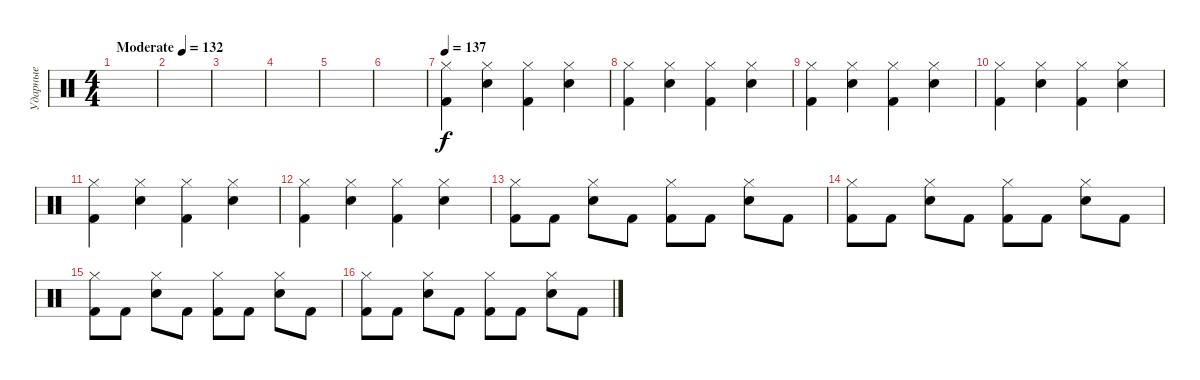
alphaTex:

\track ("Ударные" "Ударные") {instrument percussion}
\staff {score}
\articulation defaults
\ts (4 4)
\tempo (132 "Moderate")
\clef neutral
\ks c
|
|
|
|
|
|
\tempo 137
("Kick (hit) 2" "Hi-Hat (closed)").4 ("Electric Snare (hit)" "Hi-Hat (closed)").4 ("Kick (hit) 2" "Hi-Hat (closed)").4 ("Electric Snare (hit)" "Hi-Hat (closed)").4 |
("Kick (hit) 2" "Hi-Hat (closed)").4 ("Electric Snare (hit)" "Hi-Hat (closed)").4 ("Kick (hit) 2" "Hi-Hat (closed)").4 ("Electric Snare (hit)" "Hi-Hat (closed)").4 |
("Kick (hit) 2" "Hi-Hat (closed)").4 ("Electric Snare (hit)" "Hi-Hat (closed)").4 ("Kick (hit) 2" "Hi-Hat (closed)").4 ("Electric Snare (hit)" "Hi-Hat (closed)").4 |
("Kick (hit) 2" "Hi-Hat (closed)").4 ("Electric Snare (hit)" "Hi-Hat (closed)").4 ("Kick (hit) 2" "Hi-Hat (closed)").4 ("Electric Snare (hit)" "Hi-Hat (closed)").4 |
("Kick (hit) 2" "Hi-Hat (closed)").4 ("Electric Snare (hit)" "Hi-Hat (closed)").4 ("Kick (hit) 2" "Hi-Hat (closed)").4 ("Electric Snare (hit)" "Hi-Hat (closed)").4 |
("Kick (hit) 2" "Hi-Hat (closed)").4 ("Electric Snare (hit)" "Hi-Hat (closed)").4 ("Kick (hit) 2" "Hi-Hat (closed)").4 ("Electric Snare (hit)" "Hi-Hat (closed)").4 |
("Kick (hit) 2" "Hi-Hat (closed)").8 "Kick (hit) 2".8 ("Electric Snare (hit)" "Hi-Hat (closed)").8 "Kick (hit) 2".8 ("Kick (hit) 2" "Hi-Hat (closed)").8 "Kick (hit) 2".8 ("Electric Snare (hit)" "Hi-Hat (closed)").8 "Kick (hit) 2".8 |
("Kick (hit) 2" "Hi-Hat (closed)").8 "Kick (hit) 2".8 ("Electric Snare (hit)" "Hi-Hat (closed)").8 "Kick (hit) 2".8 ("Kick (hit) 2" "Hi-Hat (closed)").8 "Kick (hit) 2".8 ("Electric Snare (hit)" "Hi-Hat (closed)").8 "Kick (hit) 2".8 |
("Kick (hit) 2" "Hi-Hat (closed)").8 "Kick (hit) 2".8 ("Electric Snare (hit)" "Hi-Hat (closed)").8 "Kick (hit) 2".8 ("Kick (hit) 2" "Hi-Hat (closed)").8 "Kick (hit) 2".8 ("Electric Snare (hit)" "Hi-Hat (closed)").8 "Kick (hit) 2".8 |
("Kick (hit) 2" "Hi-Hat (closed)").8 "Kick (hit) 2".8 ("Electric Snare (hit)" "Hi-Hat (closed)").8 "Kick (hit) 2".8 ("Kick (hit) 2" "Hi-Hat (closed)").8 "Kick (hit) 2".8 ("Electric Snare (hit)" "Hi-Hat (closed)").8 "Kick (hit) 2".8
